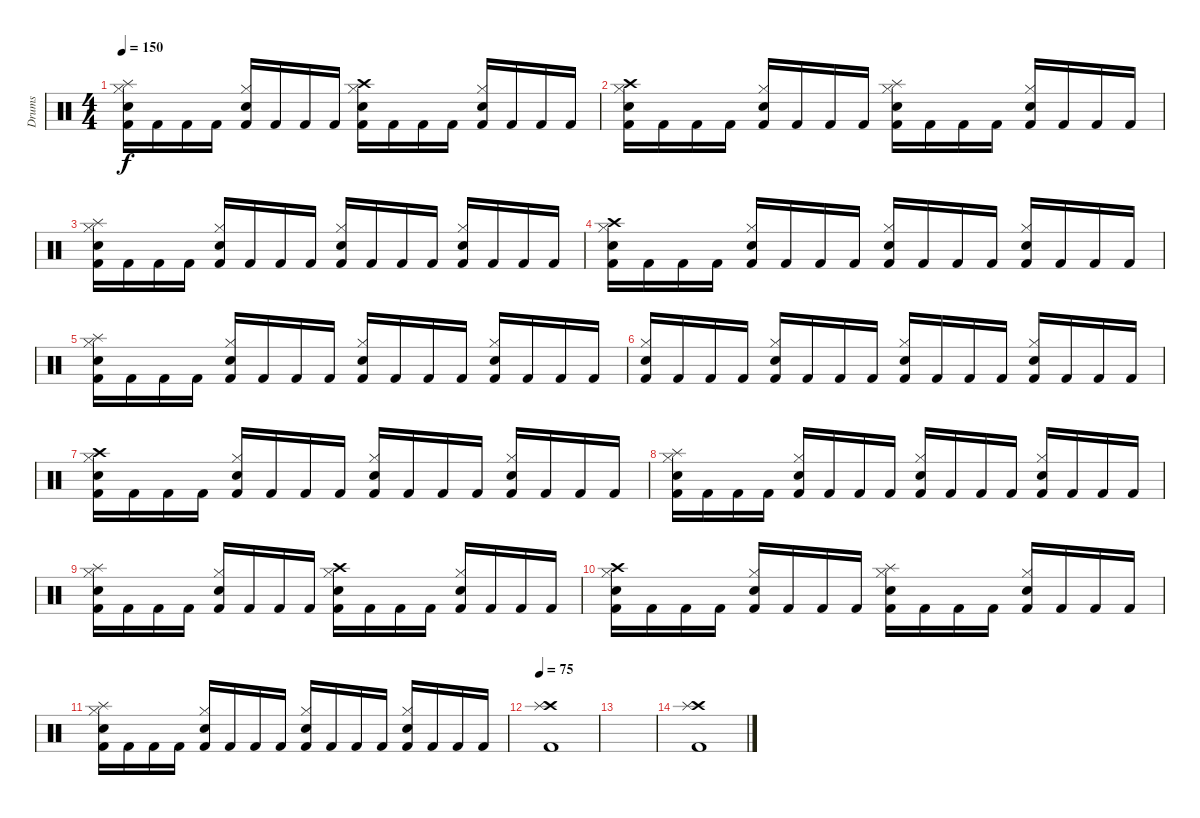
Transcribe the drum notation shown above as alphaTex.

\track ("Drums" "Drums") {instrument percussion}
\staff {score}
\articulation defaults
\ts (4 4)
\tempo 150
\clef neutral
\ks c
("Kick (hit) 2" "Hi-Hat (closed)" "Snare (hit) 2" "Splash (hit)").16{dy f} "Kick (hit) 2".16 "Kick (hit) 2".16 "Kick (hit) 2".16 ("Kick (hit) 2" "Hi-Hat (closed)" "Snare (hit) 2").16 "Kick (hit) 2".16 "Kick (hit) 2".16 "Kick (hit) 2".16 ("Kick (hit) 2" "Hi-Hat (closed)" "Snare (hit) 2" "Crash high (hit)").16 "Kick (hit) 2".16 "Kick (hit) 2".16 "Kick (hit) 2".16 ("Kick (hit) 2" "Hi-Hat (closed)" "Snare (hit) 2").16 "Kick (hit) 2".16 "Kick (hit) 2".16 "Kick (hit) 2".16 |
("Kick (hit) 2" "Hi-Hat (closed)" "Snare (hit) 2" "Crash high (hit)").16 "Kick (hit) 2".16 "Kick (hit) 2".16 "Kick (hit) 2".16 ("Kick (hit) 2" "Hi-Hat (closed)" "Snare (hit) 2").16 "Kick (hit) 2".16 "Kick (hit) 2".16 "Kick (hit) 2".16 ("Kick (hit) 2" "Hi-Hat (closed)" "Snare (hit) 2" "Splash (hit)").16 "Kick (hit) 2".16 "Kick (hit) 2".16 "Kick (hit) 2".16 ("Kick (hit) 2" "Hi-Hat (closed)" "Snare (hit) 2").16 "Kick (hit) 2".16 "Kick (hit) 2".16 "Kick (hit) 2".16 |
("Kick (hit) 2" "Hi-Hat (closed)" "Snare (hit) 2" "Splash (hit)").16 "Kick (hit) 2".16 "Kick (hit) 2".16 "Kick (hit) 2".16 ("Kick (hit) 2" "Hi-Hat (closed)" "Snare (hit) 2").16 "Kick (hit) 2".16 "Kick (hit) 2".16 "Kick (hit) 2".16 ("Kick (hit) 2" "Hi-Hat (closed)" "Snare (hit) 2").16 "Kick (hit) 2".16 "Kick (hit) 2".16 "Kick (hit) 2".16 ("Kick (hit) 2" "Hi-Hat (closed)" "Snare (hit) 2").16 "Kick (hit) 2".16 "Kick (hit) 2".16 "Kick (hit) 2".16 |
("Kick (hit) 2" "Hi-Hat (closed)" "Snare (hit) 2" "Crash high (hit)").16 "Kick (hit) 2".16 "Kick (hit) 2".16 "Kick (hit) 2".16 ("Kick (hit) 2" "Hi-Hat (closed)" "Snare (hit) 2").16 "Kick (hit) 2".16 "Kick (hit) 2".16 "Kick (hit) 2".16 ("Kick (hit) 2" "Hi-Hat (closed)" "Snare (hit) 2").16 "Kick (hit) 2".16 "Kick (hit) 2".16 "Kick (hit) 2".16 ("Kick (hit) 2" "Hi-Hat (closed)" "Snare (hit) 2").16 "Kick (hit) 2".16 "Kick (hit) 2".16 "Kick (hit) 2".16 |
("Kick (hit) 2" "Hi-Hat (closed)" "Snare (hit) 2" "Splash (hit)").16 "Kick (hit) 2".16 "Kick (hit) 2".16 "Kick (hit) 2".16 ("Kick (hit) 2" "Hi-Hat (closed)" "Snare (hit) 2").16 "Kick (hit) 2".16 "Kick (hit) 2".16 "Kick (hit) 2".16 ("Kick (hit) 2" "Hi-Hat (closed)" "Snare (hit) 2").16 "Kick (hit) 2".16 "Kick (hit) 2".16 "Kick (hit) 2".16 ("Kick (hit) 2" "Hi-Hat (closed)" "Snare (hit) 2").16 "Kick (hit) 2".16 "Kick (hit) 2".16 "Kick (hit) 2".16 |
("Kick (hit) 2" "Hi-Hat (closed)" "Snare (hit) 2").16 "Kick (hit) 2".16 "Kick (hit) 2".16 "Kick (hit) 2".16 ("Kick (hit) 2" "Hi-Hat (closed)" "Snare (hit) 2").16 "Kick (hit) 2".16 "Kick (hit) 2".16 "Kick (hit) 2".16 ("Kick (hit) 2" "Hi-Hat (closed)" "Snare (hit) 2").16 "Kick (hit) 2".16 "Kick (hit) 2".16 "Kick (hit) 2".16 ("Kick (hit) 2" "Hi-Hat (closed)" "Snare (hit) 2").16 "Kick (hit) 2".16 "Kick (hit) 2".16 "Kick (hit) 2".16 |
("Kick (hit) 2" "Hi-Hat (closed)" "Snare (hit) 2" "Crash high (hit)").16 "Kick (hit) 2".16 "Kick (hit) 2".16 "Kick (hit) 2".16 ("Kick (hit) 2" "Hi-Hat (closed)" "Snare (hit) 2").16 "Kick (hit) 2".16 "Kick (hit) 2".16 "Kick (hit) 2".16 ("Kick (hit) 2" "Hi-Hat (closed)" "Snare (hit) 2").16 "Kick (hit) 2".16 "Kick (hit) 2".16 "Kick (hit) 2".16 ("Kick (hit) 2" "Hi-Hat (closed)" "Snare (hit) 2").16 "Kick (hit) 2".16 "Kick (hit) 2".16 "Kick (hit) 2".16 |
("Kick (hit) 2" "Hi-Hat (closed)" "Snare (hit) 2" "Splash (hit)").16 "Kick (hit) 2".16 "Kick (hit) 2".16 "Kick (hit) 2".16 ("Kick (hit) 2" "Hi-Hat (closed)" "Snare (hit) 2").16 "Kick (hit) 2".16 "Kick (hit) 2".16 "Kick (hit) 2".16 ("Kick (hit) 2" "Hi-Hat (closed)" "Snare (hit) 2").16 "Kick (hit) 2".16 "Kick (hit) 2".16 "Kick (hit) 2".16 ("Kick (hit) 2" "Hi-Hat (closed)" "Snare (hit) 2").16 "Kick (hit) 2".16 "Kick (hit) 2".16 "Kick (hit) 2".16 |
("Kick (hit) 2" "Hi-Hat (closed)" "Snare (hit) 2" "Splash (hit)").16 "Kick (hit) 2".16 "Kick (hit) 2".16 "Kick (hit) 2".16 ("Kick (hit) 2" "Hi-Hat (closed)" "Snare (hit) 2").16 "Kick (hit) 2".16 "Kick (hit) 2".16 "Kick (hit) 2".16 ("Kick (hit) 2" "Hi-Hat (closed)" "Snare (hit) 2" "Crash high (hit)").16 "Kick (hit) 2".16 "Kick (hit) 2".16 "Kick (hit) 2".16 ("Kick (hit) 2" "Hi-Hat (closed)" "Snare (hit) 2").16 "Kick (hit) 2".16 "Kick (hit) 2".16 "Kick (hit) 2".16 |
("Kick (hit) 2" "Hi-Hat (closed)" "Snare (hit) 2" "Crash high (hit)").16 "Kick (hit) 2".16 "Kick (hit) 2".16 "Kick (hit) 2".16 ("Kick (hit) 2" "Hi-Hat (closed)" "Snare (hit) 2").16 "Kick (hit) 2".16 "Kick (hit) 2".16 "Kick (hit) 2".16 ("Kick (hit) 2" "Hi-Hat (closed)" "Snare (hit) 2" "Splash (hit)").16 "Kick (hit) 2".16 "Kick (hit) 2".16 "Kick (hit) 2".16 ("Kick (hit) 2" "Hi-Hat (closed)" "Snare (hit) 2").16 "Kick (hit) 2".16 "Kick (hit) 2".16 "Kick (hit) 2".16 |
("Kick (hit) 2" "Hi-Hat (closed)" "Snare (hit) 2" "Splash (hit)").16 "Kick (hit) 2".16 "Kick (hit) 2".16 "Kick (hit) 2".16 ("Kick (hit) 2" "Hi-Hat (closed)" "Snare (hit) 2").16 "Kick (hit) 2".16 "Kick (hit) 2".16 "Kick (hit) 2".16 ("Kick (hit) 2" "Hi-Hat (closed)" "Snare (hit) 2").16 "Kick (hit) 2".16 "Kick (hit) 2".16 "Kick (hit) 2".16 ("Kick (hit) 2" "Hi-Hat (closed)" "Snare (hit) 2").16 "Kick (hit) 2".16 "Kick (hit) 2".16 "Kick (hit) 2".16 |
\tempo 75
("Crash high (hit)" "Splash (hit)" "Kick (hit) 2").1 |
|
("Crash high (hit)" "Splash (hit)" "Kick (hit) 2").1
